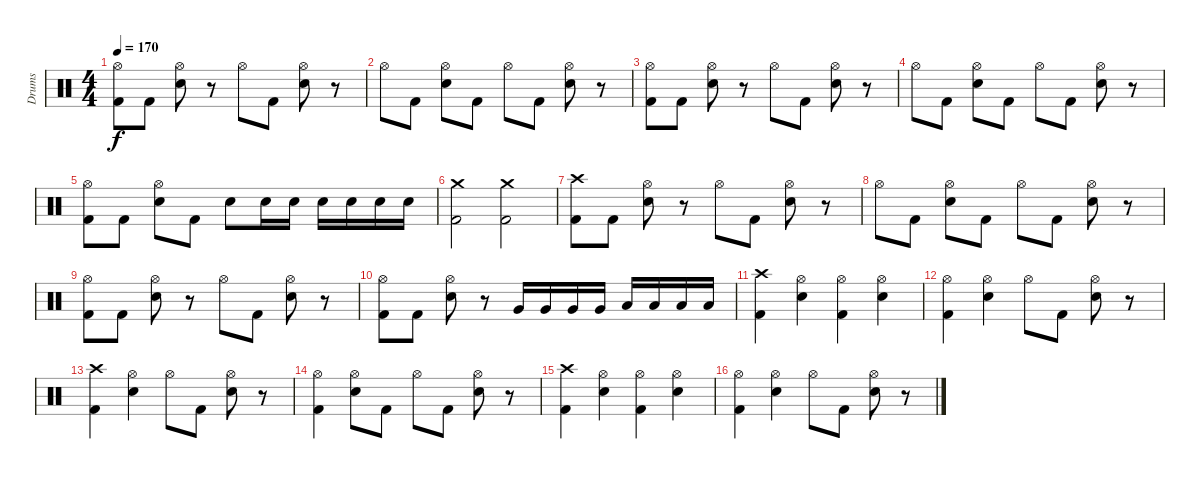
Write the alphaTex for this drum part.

\track ("Drums" "Drums") {instrument percussion}
\staff {score}
\articulation defaults
\ts (4 4)
\tempo 170
\clef neutral
\ks c
("Hi-Hat (open)" "Kick (hit) 2").8{dy f} "Kick (hit) 2".8 ("Hi-Hat (open)" "Snare (hit) 2").8 r.8 "Hi-Hat (open)".8 "Kick (hit) 2".8 ("Hi-Hat (open)" "Snare (hit) 2").8 r.8 |
"Hi-Hat (open)".8 "Kick (hit) 2".8 ("Hi-Hat (open)" "Snare (hit) 2").8 "Kick (hit) 2".8 "Hi-Hat (open)".8 "Kick (hit) 2".8 ("Hi-Hat (open)" "Snare (hit) 2").8 r.8 |
("Hi-Hat (open)" "Kick (hit) 2").8 "Kick (hit) 2".8 ("Hi-Hat (open)" "Snare (hit) 2").8 r.8 "Hi-Hat (open)".8 "Kick (hit) 2".8 ("Hi-Hat (open)" "Snare (hit) 2").8 r.8 |
"Hi-Hat (open)".8 "Kick (hit) 2".8 ("Hi-Hat (open)" "Snare (hit) 2").8 "Kick (hit) 2".8 "Hi-Hat (open)".8 "Kick (hit) 2".8 ("Hi-Hat (open)" "Snare (hit) 2").8 r.8 |
("Hi-Hat (open)" "Kick (hit) 2").8 "Kick (hit) 2".8 ("Hi-Hat (open)" "Snare (hit) 2").8 "Kick (hit) 2".8 "Snare (hit) 2".8 "Snare (hit) 2".16 "Snare (hit) 2".16 "Snare (hit) 2".16 "Snare (hit) 2".16 "Snare (hit) 2".16 "Snare (hit) 2".16 |
("Crash medium (hit)" "Kick (hit) 2").2 ("Crash medium (hit)" "Kick (hit) 2").2 |
("Crash high (hit)" "Kick (hit) 2").8 "Kick (hit) 2".8 ("Hi-Hat (open)" "Snare (hit) 2").8 r.8 "Hi-Hat (open)".8 "Kick (hit) 2".8 ("Hi-Hat (open)" "Snare (hit) 2").8 r.8 |
"Hi-Hat (open)".8 "Kick (hit) 2".8 ("Hi-Hat (open)" "Snare (hit) 2").8 "Kick (hit) 2".8 "Hi-Hat (open)".8 "Kick (hit) 2".8 ("Hi-Hat (open)" "Snare (hit) 2").8 r.8 |
("Hi-Hat (open)" "Kick (hit) 2").8 "Kick (hit) 2".8 ("Hi-Hat (open)" "Snare (hit) 2").8 r.8 "Hi-Hat (open)".8 "Kick (hit) 2".8 ("Hi-Hat (open)" "Snare (hit) 2").8 r.8 |
("Hi-Hat (open)" "Kick (hit) 2").8 "Kick (hit) 2".8 ("Hi-Hat (open)" "Snare (hit) 2").8 r.8 "Very Low Tom (hit)".16 "Very Low Tom (hit)".16 "Very Low Tom (hit)".16 "Very Low Tom (hit)".16 "Low Floor Tom (hit)".16 "Low Floor Tom (hit)".16 "Low Floor Tom (hit)".16 "Low Floor Tom (hit)".16 |
("Crash high (hit)" "Kick (hit) 2").4 ("Hi-Hat (open)" "Snare (hit) 2").4 ("Hi-Hat (open)" "Kick (hit) 2").4 ("Hi-Hat (open)" "Snare (hit) 2").4 |
("Hi-Hat (open)" "Kick (hit) 2").4 ("Hi-Hat (open)" "Snare (hit) 2").4 "Hi-Hat (open)".8 "Kick (hit) 2".8 ("Hi-Hat (open)" "Snare (hit) 2").8 r.8 |
("Crash high (hit)" "Kick (hit) 2").4 ("Hi-Hat (open)" "Snare (hit) 2").4 "Hi-Hat (open)".8 "Kick (hit) 2".8 ("Hi-Hat (open)" "Snare (hit) 2").8 r.8 |
("Hi-Hat (open)" "Kick (hit) 2").4 ("Hi-Hat (open)" "Snare (hit) 2").8 "Kick (hit) 2".8 "Hi-Hat (open)".8 "Kick (hit) 2".8 ("Hi-Hat (open)" "Snare (hit) 2").8 r.8 |
("Crash high (hit)" "Kick (hit) 2").4 ("Hi-Hat (open)" "Snare (hit) 2").4 ("Hi-Hat (open)" "Kick (hit) 2").4 ("Hi-Hat (open)" "Snare (hit) 2").4 |
("Hi-Hat (open)" "Kick (hit) 2").4 ("Hi-Hat (open)" "Snare (hit) 2").4 "Hi-Hat (open)".8 "Kick (hit) 2".8 ("Hi-Hat (open)" "Snare (hit) 2").8 r.8
